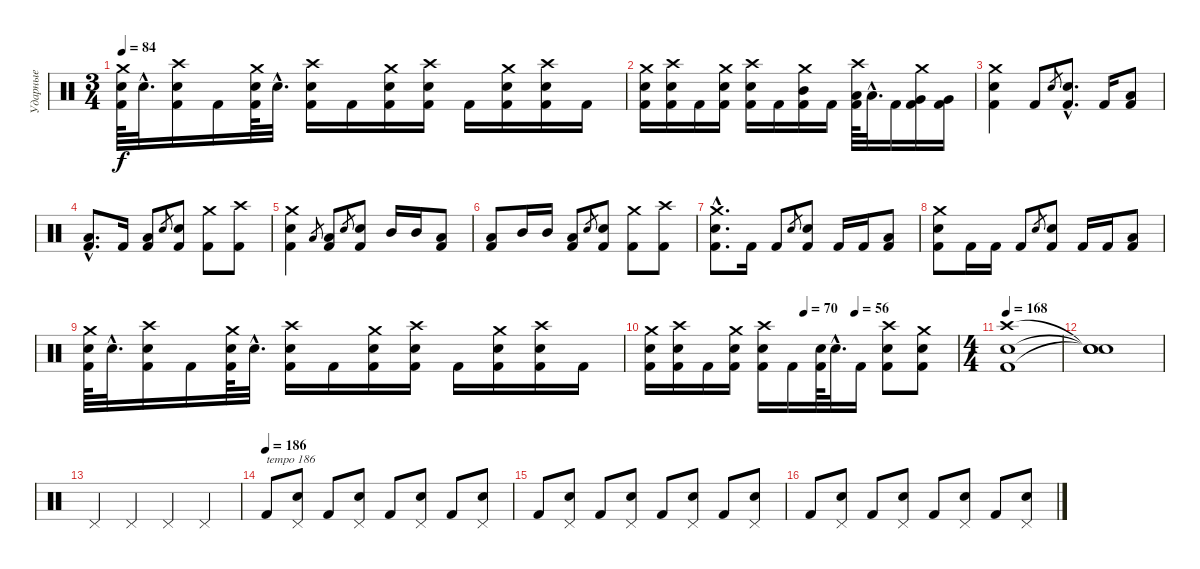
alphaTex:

\track ("Ударные" "Ударные") {instrument percussion}
\staff {score}
\articulation defaults
\ts (3 4)
\tempo 84
\clef neutral
\ks c
("Crash medium (hit)" "Snare (hit) 2" "Kick (hit) 2").64{dy f} "Snare (hit) 2"{hac}.32{d} ("Crash high (hit)" "Snare (hit) 2" "Kick (hit) 2").16 "Kick (hit) 2".16 ("Crash medium (hit)" "Snare (hit) 2" "Kick (hit) 2").64 "Snare (hit) 2"{hac}.32{d} ("Crash high (hit)" "Snare (hit) 2" "Kick (hit) 2").16 "Kick (hit) 2".16 ("Crash medium (hit)" "Snare (hit) 2" "Kick (hit) 2").16 ("Crash high (hit)" "Snare (hit) 2" "Kick (hit) 2").16 "Kick (hit) 2".16 ("Crash medium (hit)" "Snare (hit) 2" "Kick (hit) 2").16 ("Crash high (hit)" "Snare (hit) 2" "Kick (hit) 2").16 "Kick (hit) 2".16 |
("Crash medium (hit)" "Snare (hit) 2" "Kick (hit) 2").16 ("Crash high (hit)" "Snare (hit) 2" "Kick (hit) 2").16 "Kick (hit) 2".16 ("Crash medium (hit)" "Snare (hit) 2" "Kick (hit) 2").16 ("Crash high (hit)" "Snare (hit) 2" "Kick (hit) 2").16 "Kick (hit) 2".16 ("Crash medium (hit)" "Mid Tom (hit)" "Kick (hit) 2").16 "Kick (hit) 2".16 ("Crash high (hit)" "Low Tom (hit)" "Kick (hit) 2").64 "Low Tom (hit)"{hac}.32{d} "Kick (hit) 2".16 ("Crash medium (hit)" "Very Low Tom (hit)" "Kick (hit) 2").16 ("Very Low Tom (hit)" "Kick (hit) 2").16 |
("Crash medium (hit)" "Snare (hit) 2" "Kick (hit) 2").4 "Kick (hit) 2".8 "Snare (hit) 2".8{gr} ("Snare (hit) 2"{hac} "Kick (hit) 2"{hac}).8{d} "Kick (hit) 2".16 ("Low Tom (hit)" "Kick (hit) 2").8 |
("Low Tom (hit)"{hac} "Kick (hit) 2"{hac}).8{d} "Kick (hit) 2".16 ("Low Tom (hit)" "Kick (hit) 2").8 "Snare (hit) 2".8{gr} ("Snare (hit) 2" "Kick (hit) 2").8 ("Crash medium (hit)" "Kick (hit) 2").8 ("Crash high (hit)" "Kick (hit) 2").8 |
("Crash medium (hit)" "Snare (hit) 2" "Kick (hit) 2").4 "Low Tom (hit)".8{gr} ("Low Tom (hit)" "Kick (hit) 2").8 "Snare (hit) 2".8{gr} ("Snare (hit) 2" "Kick (hit) 2").8 "Mid Tom (hit)".16 "Mid Tom (hit)".16 ("Low Tom (hit)" "Kick (hit) 2").8 |
("Low Tom (hit)" "Kick (hit) 2").8 "Mid Tom (hit)".16 "Mid Tom (hit)".16 ("Low Tom (hit)" "Kick (hit) 2").8 "Snare (hit) 2".8{gr} ("Snare (hit) 2" "Kick (hit) 2").8 ("Crash medium (hit)" "Kick (hit) 2").8 ("Crash high (hit)" "Kick (hit) 2").8 |
("Crash medium (hit)"{hac} "Snare (hit) 2"{hac} "Kick (hit) 2"{hac}).8{d} "Kick (hit) 2".16 "Kick (hit) 2".8 "Snare (hit) 2".8{gr} ("Snare (hit) 2" "Kick (hit) 2").8 "Kick (hit) 2".16 "Kick (hit) 2".16 ("Low Tom (hit)" "Kick (hit) 2").8 |
("Crash medium (hit)" "Snare (hit) 2" "Kick (hit) 2").8 "Kick (hit) 2".16 "Kick (hit) 2".16 "Kick (hit) 2".8 "Snare (hit) 2".8{gr} ("Snare (hit) 2" "Kick (hit) 2").8 "Kick (hit) 2".16 "Kick (hit) 2".16 ("Low Tom (hit)" "Kick (hit) 2").8 |
("Crash medium (hit)" "Snare (hit) 2" "Kick (hit) 2").64 "Snare (hit) 2"{hac}.32{d} ("Crash high (hit)" "Snare (hit) 2" "Kick (hit) 2").16 "Kick (hit) 2".16 ("Crash medium (hit)" "Snare (hit) 2" "Kick (hit) 2").64 "Snare (hit) 2"{hac}.32{d} ("Crash high (hit)" "Snare (hit) 2" "Kick (hit) 2").16 "Kick (hit) 2".16 ("Crash medium (hit)" "Snare (hit) 2" "Kick (hit) 2").16 ("Crash high (hit)" "Snare (hit) 2" "Kick (hit) 2").16 "Kick (hit) 2".16 ("Crash medium (hit)" "Snare (hit) 2" "Kick (hit) 2").16 ("Crash high (hit)" "Snare (hit) 2" "Kick (hit) 2").16 "Kick (hit) 2".16 |
\tempo (70 0.5)
\tempo (56 0.6666666666666666)
("Crash medium (hit)" "Snare (hit) 2" "Kick (hit) 2").16 ("Crash high (hit)" "Snare (hit) 2" "Kick (hit) 2").16 "Kick (hit) 2".16 ("Crash medium (hit)" "Snare (hit) 2" "Kick (hit) 2").16 ("Crash high (hit)" "Snare (hit) 2" "Kick (hit) 2").16 "Kick (hit) 2".16 ("Snare (hit) 2" "Kick (hit) 2").64 "Snare (hit) 2"{hac}.32{d} "Kick (hit) 2".16 ("Crash high (hit)" "Snare (hit) 2" "Kick (hit) 2").8 ("Crash medium (hit)" "Snare (hit) 2" "Kick (hit) 2").8 |
\ts (4 4)
\tempo 168
("Crash high (hit)" "Snare (hit) 2" "Kick (hit) 2").1 |
("Snare (hit)"{t} "Snare (hit)"{t} "Snare (hit)"{t}).1 |
"Pedal Hi-Hat (hit)".4 "Pedal Hi-Hat (hit)".4 "Pedal Hi-Hat (hit)".4 "Pedal Hi-Hat (hit)".4 |
\tempo (186)
"Kick (hit) 2".8{txt "tempo 186"} ("Pedal Hi-Hat (hit)" "Snare (hit) 2").8 "Kick (hit) 2".8 ("Pedal Hi-Hat (hit)" "Snare (hit) 2").8 "Kick (hit) 2".8 ("Pedal Hi-Hat (hit)" "Snare (hit) 2").8 "Kick (hit) 2".8 ("Pedal Hi-Hat (hit)" "Snare (hit) 2").8 |
"Kick (hit) 2".8 ("Pedal Hi-Hat (hit)" "Snare (hit) 2").8 "Kick (hit) 2".8 ("Pedal Hi-Hat (hit)" "Snare (hit) 2").8 "Kick (hit) 2".8 ("Pedal Hi-Hat (hit)" "Snare (hit) 2").8 "Kick (hit) 2".8 ("Pedal Hi-Hat (hit)" "Snare (hit) 2").8 |
"Kick (hit) 2".8 ("Pedal Hi-Hat (hit)" "Snare (hit) 2").8 "Kick (hit) 2".8 ("Pedal Hi-Hat (hit)" "Snare (hit) 2").8 "Kick (hit) 2".8 ("Pedal Hi-Hat (hit)" "Snare (hit) 2").8 "Kick (hit) 2".8 ("Pedal Hi-Hat (hit)" "Snare (hit) 2").8
